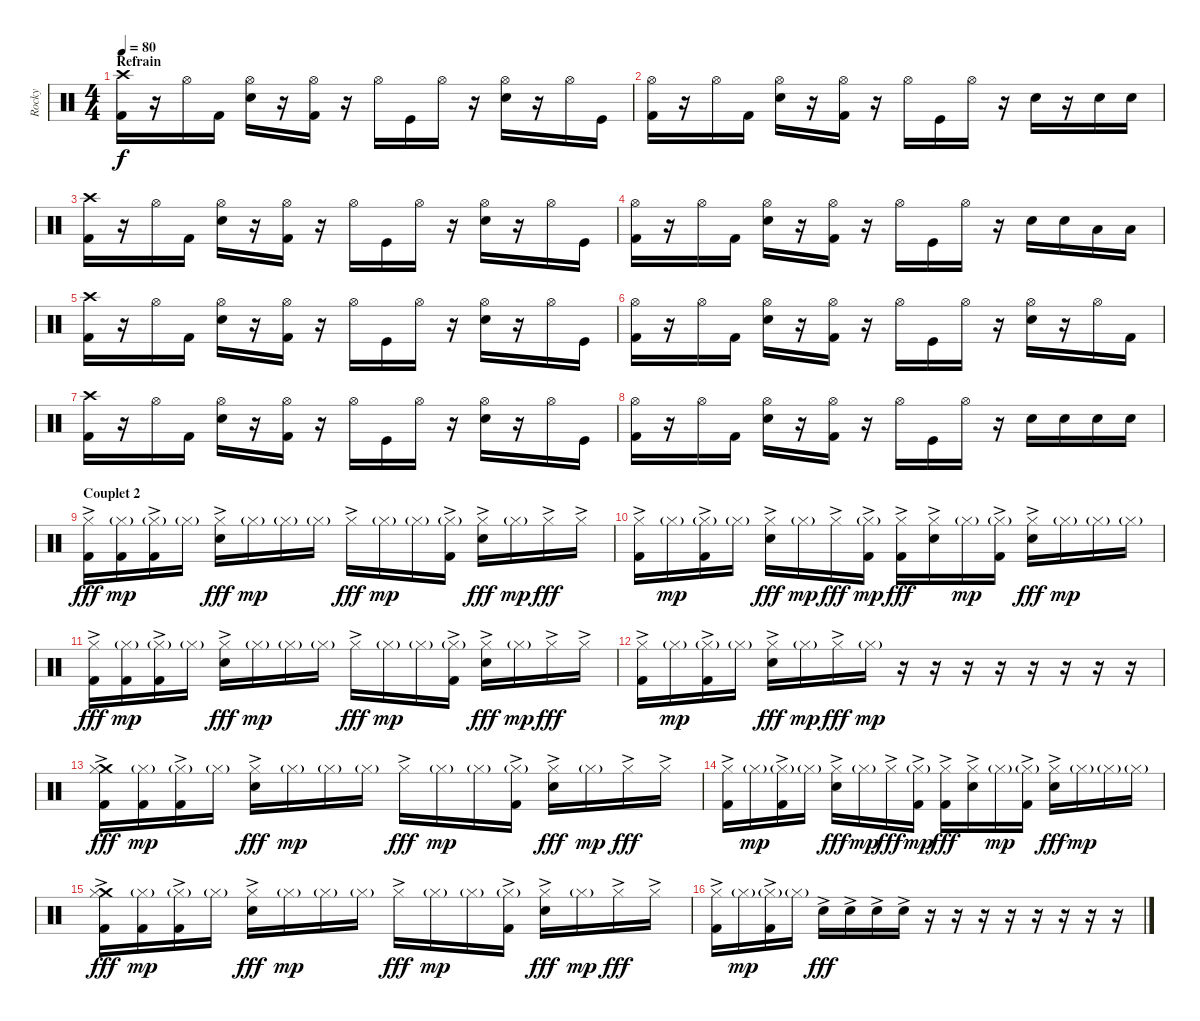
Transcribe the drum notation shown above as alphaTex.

\track ("Rocky" "Rocky") {instrument percussion}
\staff {score}
\articulation defaults
\ts (4 4)
\section ("" "Refrain")
\tempo 80
\clef neutral
\ks c
("Crash high (hit)" "Kick (hit) 2").16{dy f} r.16 "Hi-Hat (open)".16 "Kick (hit) 2".16 ("Hi-Hat (open)" "Electric Snare (hit)").16 r.16 ("Hi-Hat (open)" "Kick (hit) 2").16 r.16 "Hi-Hat (open)".16 "Kick (hit)".16 "Hi-Hat (open)".16 r.16 ("Hi-Hat (open)" "Electric Snare (hit)").16 r.16 "Hi-Hat (open)".16 "Kick (hit)".16 |
("Hi-Hat (open)" "Kick (hit) 2").16 r.16 "Hi-Hat (open)".16 "Kick (hit) 2".16 ("Hi-Hat (open)" "Electric Snare (hit)").16 r.16 ("Hi-Hat (open)" "Kick (hit) 2").16 r.16 "Hi-Hat (open)".16 "Kick (hit)".16 "Hi-Hat (open)".16 r.16 "Electric Snare (hit)".16 r.16 "Electric Snare (hit)".16 "Electric Snare (hit)".16 |
("Crash high (hit)" "Kick (hit) 2").16 r.16 "Hi-Hat (open)".16 "Kick (hit) 2".16 ("Hi-Hat (open)" "Electric Snare (hit)").16 r.16 ("Hi-Hat (open)" "Kick (hit) 2").16 r.16 "Hi-Hat (open)".16 "Kick (hit)".16 "Hi-Hat (open)".16 r.16 ("Hi-Hat (open)" "Electric Snare (hit)").16 r.16 "Hi-Hat (open)".16 "Kick (hit)".16 |
("Hi-Hat (open)" "Kick (hit) 2").16 r.16 "Hi-Hat (open)".16 "Kick (hit) 2".16 ("Hi-Hat (open)" "Electric Snare (hit)").16 r.16 ("Hi-Hat (open)" "Kick (hit) 2").16 r.16 "Hi-Hat (open)".16 "Kick (hit)".16 "Hi-Hat (open)".16 r.16 "Electric Snare (hit)".16 "Electric Snare (hit)".16 "Low Tom (hit)".16 "Low Tom (hit)".16 |
("Crash high (hit)" "Kick (hit) 2").16 r.16 "Hi-Hat (open)".16 "Kick (hit) 2".16 ("Hi-Hat (open)" "Electric Snare (hit)").16 r.16 ("Hi-Hat (open)" "Kick (hit) 2").16 r.16 "Hi-Hat (open)".16 "Kick (hit)".16 "Hi-Hat (open)".16 r.16 ("Hi-Hat (open)" "Electric Snare (hit)").16 r.16 "Hi-Hat (open)".16 "Kick (hit)".16 |
("Hi-Hat (open)" "Kick (hit) 2").16 r.16 "Hi-Hat (open)".16 "Kick (hit) 2".16 ("Hi-Hat (open)" "Electric Snare (hit)").16 r.16 ("Hi-Hat (open)" "Kick (hit) 2").16 r.16 "Hi-Hat (open)".16 "Kick (hit)".16 "Hi-Hat (open)".16 r.16 ("Hi-Hat (open)" "Electric Snare (hit)").16 r.16 "Hi-Hat (open)".16 "Kick (hit) 2".16 |
("Crash high (hit)" "Kick (hit) 2").16 r.16 "Hi-Hat (open)".16 "Kick (hit) 2".16 ("Hi-Hat (open)" "Electric Snare (hit)").16 r.16 ("Hi-Hat (open)" "Kick (hit) 2").16 r.16 "Hi-Hat (open)".16 "Kick (hit)".16 "Hi-Hat (open)".16 r.16 ("Hi-Hat (open)" "Electric Snare (hit)").16 r.16 "Hi-Hat (open)".16 "Kick (hit)".16 |
("Hi-Hat (open)" "Kick (hit) 2").16 r.16 "Hi-Hat (open)".16 "Kick (hit) 2".16 ("Hi-Hat (open)" "Electric Snare (hit)").16 r.16 ("Hi-Hat (open)" "Kick (hit) 2").16 r.16 "Hi-Hat (open)".16 "Kick (hit)".16 "Hi-Hat (open)".16 r.16 "Electric Snare (hit)".16 "Electric Snare (hit)".16 "Electric Snare (hit)".16 "Electric Snare (hit)".16 |
\section ("" "Couplet 2")
("Kick (hit) 2"{ac} "Hi-Hat (closed)"{ac}).16{dy fff} ("Kick (hit) 2" "Hi-Hat (closed)"{g}).16{dy mp} ("Kick (hit) 2"{ac} "Hi-Hat (closed)"{g}).16 "Hi-Hat (closed)"{g}.16 ("Electric Snare (hit)"{ac} "Hi-Hat (closed)"{ac}).16{dy fff} "Hi-Hat (closed)"{g}.16{dy mp} "Hi-Hat (closed)"{g}.16 "Hi-Hat (closed)"{g}.16 "Hi-Hat (closed)"{ac}.16{dy fff} "Hi-Hat (closed)"{g}.16{dy mp} "Hi-Hat (closed)"{g}.16 ("Kick (hit) 2"{ac} "Hi-Hat (closed)"{g ac}).16 ("Electric Snare (hit)"{ac} "Hi-Hat (closed)"{ac}).16{dy fff} "Hi-Hat (closed)"{g}.16{dy mp} "Hi-Hat (closed)"{ac}.16{dy fff} "Hi-Hat (closed)"{ac}.16 |
("Kick (hit) 2"{ac} "Hi-Hat (closed)"{ac}).16 "Hi-Hat (closed)"{g}.16{dy mp} ("Kick (hit) 2"{ac} "Hi-Hat (closed)"{g}).16 "Hi-Hat (closed)"{g}.16 ("Electric Snare (hit)"{ac} "Hi-Hat (closed)"{ac}).16{dy fff} "Hi-Hat (closed)"{g}.16{dy mp} "Hi-Hat (closed)"{ac}.16{dy fff} ("Kick (hit) 2"{ac} "Hi-Hat (closed)"{g}).16{dy mp} ("Kick (hit) 2"{ac} "Hi-Hat (closed)"{ac}).16{dy fff} ("Electric Snare (hit)"{ac} "Hi-Hat (closed)"{ac}).16 "Hi-Hat (closed)"{g}.16{dy mp} ("Kick (hit) 2"{ac} "Hi-Hat (closed)"{g}).16 ("Electric Snare (hit)"{ac} "Hi-Hat (closed)"{ac}).16{dy fff} "Hi-Hat (closed)"{g}.16{dy mp} "Hi-Hat (closed)"{g}.16 "Hi-Hat (closed)"{g}.16 |
("Kick (hit) 2"{ac} "Hi-Hat (closed)"{ac}).16{dy fff} ("Kick (hit) 2" "Hi-Hat (closed)"{g}).16{dy mp} ("Kick (hit) 2"{ac} "Hi-Hat (closed)"{g}).16 "Hi-Hat (closed)"{g}.16 ("Electric Snare (hit)"{ac} "Hi-Hat (closed)"{ac}).16{dy fff} "Hi-Hat (closed)"{g}.16{dy mp} "Hi-Hat (closed)"{g}.16 "Hi-Hat (closed)"{g}.16 "Hi-Hat (closed)"{ac}.16{dy fff} "Hi-Hat (closed)"{g}.16{dy mp} "Hi-Hat (closed)"{g}.16 ("Kick (hit) 2"{ac} "Hi-Hat (closed)"{g ac}).16 ("Electric Snare (hit)"{ac} "Hi-Hat (closed)"{ac}).16{dy fff} "Hi-Hat (closed)"{g}.16{dy mp} "Hi-Hat (closed)"{ac}.16{dy fff} "Hi-Hat (closed)"{ac}.16 |
("Kick (hit) 2"{ac} "Hi-Hat (closed)"{ac}).16 "Hi-Hat (closed)"{g}.16{dy mp} ("Kick (hit) 2"{ac} "Hi-Hat (closed)"{g}).16 "Hi-Hat (closed)"{g}.16 ("Electric Snare (hit)"{ac} "Hi-Hat (closed)"{ac}).16{dy fff} "Hi-Hat (closed)"{g}.16{dy mp} "Hi-Hat (closed)"{ac}.16{dy fff} "Hi-Hat (closed)"{g}.16{dy mp} r.16 r.16 r.16 r.16 r.16 r.16 r.16 r.16 |
("Kick (hit) 2"{ac} "Crash medium (hit)" "Hi-Hat (closed)"{ac}).16{dy fff} ("Hi-Hat (closed)"{g} "Kick (hit) 2").16{dy mp} ("Kick (hit) 2"{ac} "Hi-Hat (closed)"{g}).16 "Hi-Hat (closed)"{g}.16 ("Electric Snare (hit)"{ac} "Hi-Hat (closed)"{ac}).16{dy fff} "Hi-Hat (closed)"{g}.16{dy mp} "Hi-Hat (closed)"{g}.16 "Hi-Hat (closed)"{g}.16 "Hi-Hat (closed)"{ac}.16{dy fff} "Hi-Hat (closed)"{g}.16{dy mp} "Hi-Hat (closed)"{g}.16 ("Kick (hit) 2"{ac} "Hi-Hat (closed)"{g ac}).16 ("Electric Snare (hit)"{ac} "Hi-Hat (closed)"{ac}).16{dy fff} "Hi-Hat (closed)"{g}.16{dy mp} "Hi-Hat (closed)"{ac}.16{dy fff} "Hi-Hat (closed)"{ac}.16 |
("Kick (hit) 2"{ac} "Hi-Hat (closed)"{ac}).16 "Hi-Hat (closed)"{g}.16{dy mp} ("Kick (hit) 2"{ac} "Hi-Hat (closed)"{g}).16 "Hi-Hat (closed)"{g}.16 ("Electric Snare (hit)"{ac} "Hi-Hat (closed)"{ac}).16{dy fff} "Hi-Hat (closed)"{g}.16{dy mp} "Hi-Hat (closed)"{ac}.16{dy fff} ("Kick (hit) 2"{ac} "Hi-Hat (closed)"{g}).16{dy mp} ("Kick (hit) 2"{ac} "Hi-Hat (closed)"{ac}).16{dy fff} ("Electric Snare (hit)"{ac} "Hi-Hat (closed)"{ac}).16 "Hi-Hat (closed)"{g}.16{dy mp} ("Kick (hit) 2"{ac} "Hi-Hat (closed)"{g}).16 ("Electric Snare (hit)"{ac} "Hi-Hat (closed)"{ac}).16{dy fff} "Hi-Hat (closed)"{g}.16{dy mp} "Hi-Hat (closed)"{g}.16 "Hi-Hat (closed)"{g}.16 |
("Kick (hit) 2"{ac} "Crash medium (hit)" "Hi-Hat (closed)"{ac}).16{dy fff} ("Hi-Hat (closed)"{g} "Kick (hit) 2").16{dy mp} ("Kick (hit) 2"{ac} "Hi-Hat (closed)"{g}).16 "Hi-Hat (closed)"{g}.16 ("Electric Snare (hit)"{ac} "Hi-Hat (closed)"{ac}).16{dy fff} "Hi-Hat (closed)"{g}.16{dy mp} "Hi-Hat (closed)"{g}.16 "Hi-Hat (closed)"{g}.16 "Hi-Hat (closed)"{ac}.16{dy fff} "Hi-Hat (closed)"{g}.16{dy mp} "Hi-Hat (closed)"{g}.16 ("Kick (hit) 2"{ac} "Hi-Hat (closed)"{g ac}).16 ("Electric Snare (hit)"{ac} "Hi-Hat (closed)"{ac}).16{dy fff} "Hi-Hat (closed)"{g}.16{dy mp} "Hi-Hat (closed)"{ac}.16{dy fff} "Hi-Hat (closed)"{ac}.16 |
("Kick (hit) 2"{ac} "Hi-Hat (closed)"{ac}).16 "Hi-Hat (closed)"{g}.16{dy mp} ("Kick (hit) 2"{ac} "Hi-Hat (closed)"{g}).16 "Hi-Hat (closed)"{g}.16 "Electric Snare (hit)"{ac}.16{dy fff} "Electric Snare (hit)"{ac}.16 "Electric Snare (hit)"{ac}.16 "Electric Snare (hit)"{ac}.16 r.16 r.16 r.16 r.16 r.16 r.16 r.16 r.16
